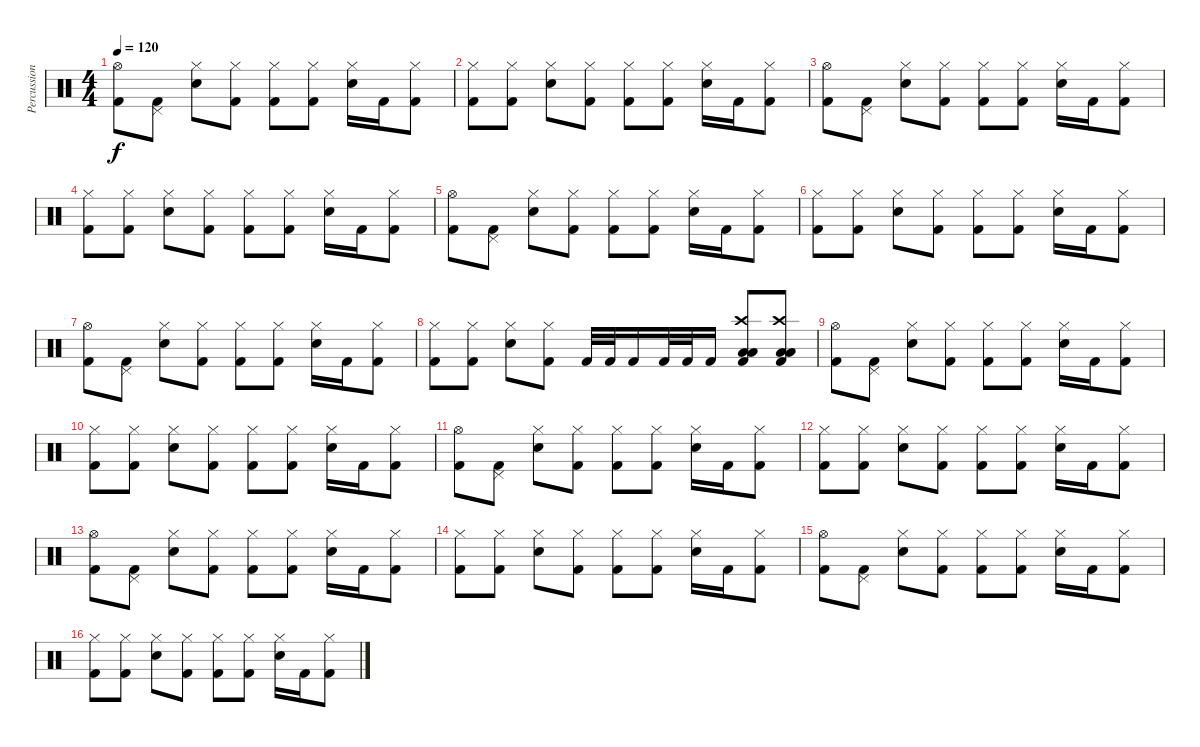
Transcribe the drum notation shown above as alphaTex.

\track ("Percussion" "Percussion") {instrument percussion}
\staff {score}
\articulation defaults
\ts (4 4)
\tempo 120
\clef neutral
\ks c
("Hi-Hat (open)" "Kick (hit) 2").8{dy f volume 8} ("Pedal Hi-Hat (hit)" "Kick (hit) 2").8 ("Hi-Hat (closed)" "Snare (hit) 2").8 ("Hi-Hat (closed)" "Kick (hit) 2").8 ("Hi-Hat (closed)" "Kick (hit) 2").8 ("Hi-Hat (closed)" "Kick (hit) 2").8 ("Hi-Hat (closed)" "Snare (hit) 2").16 "Kick (hit) 2".16 ("Hi-Hat (closed)" "Kick (hit) 2").8 |
("Hi-Hat (closed)" "Kick (hit) 2").8 ("Hi-Hat (closed)" "Kick (hit) 2").8 ("Hi-Hat (closed)" "Snare (hit) 2").8 ("Hi-Hat (closed)" "Kick (hit) 2").8 ("Hi-Hat (closed)" "Kick (hit) 2").8 ("Hi-Hat (closed)" "Kick (hit) 2").8 ("Hi-Hat (closed)" "Snare (hit) 2").16 "Kick (hit) 2".16 ("Hi-Hat (closed)" "Kick (hit) 2").8 |
("Hi-Hat (open)" "Kick (hit) 2").8{volume 8} ("Pedal Hi-Hat (hit)" "Kick (hit) 2").8 ("Hi-Hat (closed)" "Snare (hit) 2").8 ("Hi-Hat (closed)" "Kick (hit) 2").8 ("Hi-Hat (closed)" "Kick (hit) 2").8 ("Hi-Hat (closed)" "Kick (hit) 2").8 ("Hi-Hat (closed)" "Snare (hit) 2").16 "Kick (hit) 2".16 ("Hi-Hat (closed)" "Kick (hit) 2").8 |
("Hi-Hat (closed)" "Kick (hit) 2").8 ("Hi-Hat (closed)" "Kick (hit) 2").8 ("Hi-Hat (closed)" "Snare (hit) 2").8 ("Hi-Hat (closed)" "Kick (hit) 2").8 ("Hi-Hat (closed)" "Kick (hit) 2").8 ("Hi-Hat (closed)" "Kick (hit) 2").8 ("Hi-Hat (closed)" "Snare (hit) 2").16 "Kick (hit) 2".16 ("Hi-Hat (closed)" "Kick (hit) 2").8 |
("Hi-Hat (open)" "Kick (hit) 2").8{volume 8} ("Pedal Hi-Hat (hit)" "Kick (hit) 2").8 ("Hi-Hat (closed)" "Snare (hit) 2").8 ("Hi-Hat (closed)" "Kick (hit) 2").8 ("Hi-Hat (closed)" "Kick (hit) 2").8 ("Hi-Hat (closed)" "Kick (hit) 2").8 ("Hi-Hat (closed)" "Snare (hit) 2").16 "Kick (hit) 2".16 ("Hi-Hat (closed)" "Kick (hit) 2").8 |
("Hi-Hat (closed)" "Kick (hit) 2").8 ("Hi-Hat (closed)" "Kick (hit) 2").8 ("Hi-Hat (closed)" "Snare (hit) 2").8 ("Hi-Hat (closed)" "Kick (hit) 2").8 ("Hi-Hat (closed)" "Kick (hit) 2").8 ("Hi-Hat (closed)" "Kick (hit) 2").8 ("Hi-Hat (closed)" "Snare (hit) 2").16 "Kick (hit) 2".16 ("Hi-Hat (closed)" "Kick (hit) 2").8 |
("Hi-Hat (open)" "Kick (hit) 2").8{volume 8} ("Pedal Hi-Hat (hit)" "Kick (hit) 2").8 ("Hi-Hat (closed)" "Snare (hit) 2").8 ("Hi-Hat (closed)" "Kick (hit) 2").8 ("Hi-Hat (closed)" "Kick (hit) 2").8 ("Hi-Hat (closed)" "Kick (hit) 2").8 ("Hi-Hat (closed)" "Snare (hit) 2").16 "Kick (hit) 2".16 ("Hi-Hat (closed)" "Kick (hit) 2").8 |
("Hi-Hat (closed)" "Kick (hit) 2").8{volume 16} ("Hi-Hat (closed)" "Kick (hit) 2").8 ("Hi-Hat (closed)" "Snare (hit) 2").8 ("Hi-Hat (closed)" "Kick (hit) 2").8 "Kick (hit) 2".32 "Kick (hit) 2".32 "Kick (hit) 2".16 "Kick (hit) 2".32 "Kick (hit) 2".32 "Kick (hit) 2".16 ("Crash high (hit)" "Low Tom (hit)" "Low Tom (hit)" "Kick (hit) 2").8 ("Crash high (hit)" "Low Tom (hit)" "Low Tom (hit)" "Kick (hit) 2").8 |
("Hi-Hat (open)" "Kick (hit) 2").8{volume 13} ("Pedal Hi-Hat (hit)" "Kick (hit) 2").8 ("Hi-Hat (closed)" "Snare (hit) 2").8 ("Hi-Hat (closed)" "Kick (hit) 2").8 ("Hi-Hat (closed)" "Kick (hit) 2").8 ("Hi-Hat (closed)" "Kick (hit) 2").8 ("Hi-Hat (closed)" "Snare (hit) 2").16 "Kick (hit) 2".16 ("Hi-Hat (closed)" "Kick (hit) 2").8 |
("Hi-Hat (closed)" "Kick (hit) 2").8 ("Hi-Hat (closed)" "Kick (hit) 2").8 ("Hi-Hat (closed)" "Snare (hit) 2").8 ("Hi-Hat (closed)" "Kick (hit) 2").8 ("Hi-Hat (closed)" "Kick (hit) 2").8 ("Hi-Hat (closed)" "Kick (hit) 2").8 ("Hi-Hat (closed)" "Snare (hit) 2").16 "Kick (hit) 2".16 ("Hi-Hat (closed)" "Kick (hit) 2").8 |
("Hi-Hat (open)" "Kick (hit) 2").8{volume 13} ("Pedal Hi-Hat (hit)" "Kick (hit) 2").8 ("Hi-Hat (closed)" "Snare (hit) 2").8 ("Hi-Hat (closed)" "Kick (hit) 2").8 ("Hi-Hat (closed)" "Kick (hit) 2").8 ("Hi-Hat (closed)" "Kick (hit) 2").8 ("Hi-Hat (closed)" "Snare (hit) 2").16 "Kick (hit) 2".16 ("Hi-Hat (closed)" "Kick (hit) 2").8 |
("Hi-Hat (closed)" "Kick (hit) 2").8 ("Hi-Hat (closed)" "Kick (hit) 2").8 ("Hi-Hat (closed)" "Snare (hit) 2").8 ("Hi-Hat (closed)" "Kick (hit) 2").8 ("Hi-Hat (closed)" "Kick (hit) 2").8 ("Hi-Hat (closed)" "Kick (hit) 2").8 ("Hi-Hat (closed)" "Snare (hit) 2").16 "Kick (hit) 2".16 ("Hi-Hat (closed)" "Kick (hit) 2").8 |
("Hi-Hat (open)" "Kick (hit) 2").8{volume 13} ("Pedal Hi-Hat (hit)" "Kick (hit) 2").8 ("Hi-Hat (closed)" "Snare (hit) 2").8 ("Hi-Hat (closed)" "Kick (hit) 2").8 ("Hi-Hat (closed)" "Kick (hit) 2").8 ("Hi-Hat (closed)" "Kick (hit) 2").8 ("Hi-Hat (closed)" "Snare (hit) 2").16 "Kick (hit) 2".16 ("Hi-Hat (closed)" "Kick (hit) 2").8 |
("Hi-Hat (closed)" "Kick (hit) 2").8 ("Hi-Hat (closed)" "Kick (hit) 2").8 ("Hi-Hat (closed)" "Snare (hit) 2").8 ("Hi-Hat (closed)" "Kick (hit) 2").8 ("Hi-Hat (closed)" "Kick (hit) 2").8 ("Hi-Hat (closed)" "Kick (hit) 2").8 ("Hi-Hat (closed)" "Snare (hit) 2").16 "Kick (hit) 2".16 ("Hi-Hat (closed)" "Kick (hit) 2").8 |
("Hi-Hat (open)" "Kick (hit) 2").8{volume 13} ("Pedal Hi-Hat (hit)" "Kick (hit) 2").8 ("Hi-Hat (closed)" "Snare (hit) 2").8 ("Hi-Hat (closed)" "Kick (hit) 2").8 ("Hi-Hat (closed)" "Kick (hit) 2").8 ("Hi-Hat (closed)" "Kick (hit) 2").8 ("Hi-Hat (closed)" "Snare (hit) 2").16 "Kick (hit) 2".16 ("Hi-Hat (closed)" "Kick (hit) 2").8 |
("Hi-Hat (closed)" "Kick (hit) 2").8 ("Hi-Hat (closed)" "Kick (hit) 2").8 ("Hi-Hat (closed)" "Snare (hit) 2").8 ("Hi-Hat (closed)" "Kick (hit) 2").8 ("Hi-Hat (closed)" "Kick (hit) 2").8 ("Hi-Hat (closed)" "Kick (hit) 2").8 ("Hi-Hat (closed)" "Snare (hit) 2").16 "Kick (hit) 2".16 ("Hi-Hat (closed)" "Kick (hit) 2").8
